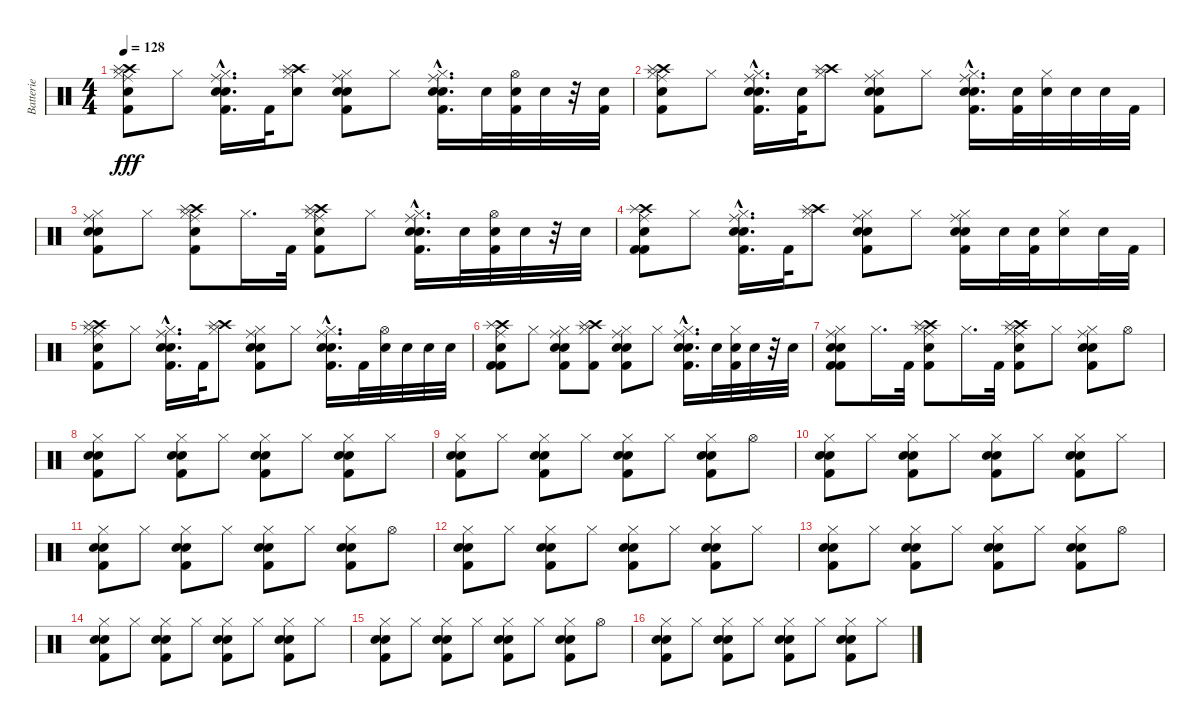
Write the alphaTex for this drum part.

\track ("Batterie" "Batterie") {instrument percussion}
\staff {score}
\articulation defaults
\ts (4 4)
\tempo 128
\clef neutral
\ks c
("Crash high (hit)" "Splash (hit)" "Ride (middle)" "Snare (hit) 2" "Kick (hit) 2" "Hi-Hat (closed)").8{dy fff} "Hi-Hat (closed)".8 ("Ride (middle)" "Snare (hit) 2"{hac} "Kick (hit) 2"{hac} "Hi-Hat (closed)" "Electric Snare (hit)").16{d} "Kick (hit) 2".32 ("Snare (hit) 2" "Hi-Hat (closed)" "Crash high (hit)" "Splash (hit)").8 ("Ride (middle)" "Kick (hit) 2" "Snare (hit) 2" "Hi-Hat (closed)" "Electric Snare (hit)").8 "Hi-Hat (closed)".8 ("Ride (middle)" "Kick (hit) 2"{hac} "Snare (hit) 2"{hac} "Hi-Hat (closed)" "Electric Snare (hit)").16{d} "Snare (hit) 2".32 ("Kick (hit) 2" "Snare (hit) 2" "Hi-Hat (open)").32 "Snare (hit) 2".32 r.32 ("Snare (hit) 2" "Kick (hit) 2").32 |
("Crash high (hit)" "Splash (hit)" "Ride (middle)" "Snare (hit) 2" "Kick (hit) 2" "Hi-Hat (closed)").8 "Hi-Hat (closed)".8 ("Ride (middle)" "Kick (hit) 2"{hac} "Snare (hit) 2"{hac} "Hi-Hat (closed)" "Electric Snare (hit)").16{d} ("Snare (hit) 2" "Kick (hit) 2").32 ("Hi-Hat (closed)" "Crash high (hit)" "Splash (hit)").8 ("Ride (middle)" "Snare (hit) 2" "Kick (hit) 2" "Hi-Hat (closed)" "Electric Snare (hit)").8 "Hi-Hat (closed)".8 ("Ride (middle)" "Snare (hit) 2"{hac} "Kick (hit) 2"{hac} "Hi-Hat (closed)" "Electric Snare (hit)").16{d} ("Snare (hit) 2" "Kick (hit) 2").32 ("Snare (hit) 2" "Hi-Hat (closed)").32 "Snare (hit) 2".32 "Snare (hit) 2".32 "Kick (hit) 2".32 |
("Ride (middle)" "Snare (hit) 2" "Kick (hit) 2" "Hi-Hat (closed)" "Electric Snare (hit)").8 "Hi-Hat (closed)".8 ("Crash high (hit)" "Splash (hit)" "Ride (middle)" "Snare (hit) 2" "Kick (hit) 2" "Hi-Hat (closed)").8 "Hi-Hat (closed)".16{d} "Kick (hit) 2".32 ("Crash high (hit)" "Splash (hit)" "Ride (middle)" "Kick (hit) 2" "Snare (hit) 2" "Hi-Hat (closed)").8 "Hi-Hat (closed)".8 ("Ride (middle)" "Kick (hit) 2"{hac} "Snare (hit) 2"{hac} "Hi-Hat (closed)" "Electric Snare (hit)").16{d} "Snare (hit) 2".32 ("Kick (hit) 2" "Hi-Hat (open)" "Snare (hit) 2").32 "Snare (hit) 2".32 r.32 "Snare (hit) 2".32 |
("Kick (hit) 2" "Crash high (hit)" "Splash (hit)" "Ride (middle)" "Snare (hit) 2" "Kick (hit) 2").8 "Hi-Hat (closed)".8 ("Ride (middle)" "Kick (hit) 2"{hac} "Snare (hit) 2" "Hi-Hat (closed)" "Electric Snare (hit)").16{d} "Kick (hit) 2".32 ("Crash high (hit)" "Splash (hit)" "Hi-Hat (closed)").8 ("Ride (middle)" "Snare (hit) 2" "Kick (hit) 2" "Hi-Hat (closed)" "Electric Snare (hit)").8 "Hi-Hat (closed)".8 ("Ride (middle)" "Snare (hit) 2" "Kick (hit) 2" "Hi-Hat (closed)" "Electric Snare (hit)").16 "Snare (hit) 2".32 ("Kick (hit) 2" "Snare (hit) 2").32 ("Hi-Hat (closed)" "Snare (hit) 2").16 "Snare (hit) 2".32 "Kick (hit) 2".32 |
("Crash high (hit)" "Splash (hit)" "Ride (middle)" "Snare (hit) 2" "Kick (hit) 2" "Hi-Hat (closed)").8 "Hi-Hat (closed)".8 ("Ride (middle)" "Snare (hit) 2" "Kick (hit) 2"{hac} "Hi-Hat (closed)" "Electric Snare (hit)").16{d} "Kick (hit) 2".32 ("Hi-Hat (closed)" "Crash high (hit)" "Splash (hit)").8 ("Ride (middle)" "Kick (hit) 2" "Snare (hit) 2" "Hi-Hat (closed)" "Electric Snare (hit)").8 "Hi-Hat (closed)".8 ("Ride (middle)" "Kick (hit) 2"{hac} "Snare (hit) 2"{hac} "Hi-Hat (closed)" "Electric Snare (hit)").16{d} "Kick (hit) 2".32 ("Snare (hit) 2" "Hi-Hat (open)").32 "Snare (hit) 2".32 "Snare (hit) 2".32 "Snare (hit) 2".32 |
("Kick (hit) 2" "Crash high (hit)" "Splash (hit)" "Ride (middle)" "Snare (hit) 2" "Kick (hit) 2").8 "Hi-Hat (closed)".8 ("Ride (middle)" "Kick (hit) 2" "Snare (hit) 2" "Hi-Hat (closed)" "Electric Snare (hit)").8 ("Crash high (hit)" "Splash (hit)" "Hi-Hat (closed)" "Kick (hit) 2").8 ("Ride (middle)" "Snare (hit) 2" "Kick (hit) 2" "Hi-Hat (closed)" "Electric Snare (hit)").8 "Hi-Hat (closed)".8 ("Ride (middle)" "Snare (hit) 2"{hac} "Kick (hit) 2"{hac} "Hi-Hat (closed)" "Electric Snare (hit)").16{d} "Snare (hit) 2".32 ("Kick (hit) 2" "Hi-Hat (closed)" "Snare (hit) 2").32 "Snare (hit) 2".32 r.32 "Snare (hit) 2".32 |
("Kick (hit) 2" "Ride (middle)" "Snare (hit) 2" "Kick (hit) 2" "Hi-Hat (closed)" "Electric Snare (hit)").8 "Hi-Hat (closed)".16{d} "Kick (hit) 2".32 ("Crash high (hit)" "Splash (hit)" "Ride (middle)" "Snare (hit) 2" "Kick (hit) 2" "Hi-Hat (closed)").8 "Hi-Hat (closed)".16{d} "Kick (hit) 2".32 ("Crash high (hit)" "Splash (hit)" "Ride (middle)" "Kick (hit) 2" "Snare (hit) 2" "Hi-Hat (closed)").8 "Hi-Hat (closed)".8 ("Ride (middle)" "Kick (hit) 2" "Snare (hit) 2" "Hi-Hat (closed)" "Electric Snare (hit)").8 "Hi-Hat (open)".8 |
("Snare (hit) 2" "Kick (hit) 2" "Hi-Hat (closed)" "Electric Snare (hit)").8 "Hi-Hat (closed)".8 ("Kick (hit) 2" "Snare (hit) 2" "Hi-Hat (closed)" "Electric Snare (hit)").8 "Hi-Hat (closed)".8 ("Snare (hit) 2" "Kick (hit) 2" "Hi-Hat (closed)" "Electric Snare (hit)").8 "Hi-Hat (closed)".8 ("Snare (hit) 2" "Kick (hit) 2" "Hi-Hat (closed)" "Electric Snare (hit)").8 "Hi-Hat (closed)".8 |
("Snare (hit) 2" "Kick (hit) 2" "Hi-Hat (closed)" "Electric Snare (hit)").8 "Hi-Hat (closed)".8 ("Snare (hit) 2" "Kick (hit) 2" "Hi-Hat (closed)" "Electric Snare (hit)").8 "Hi-Hat (closed)".8 ("Kick (hit) 2" "Snare (hit) 2" "Hi-Hat (closed)" "Electric Snare (hit)").8 "Hi-Hat (closed)".8 ("Kick (hit) 2" "Snare (hit) 2" "Hi-Hat (closed)" "Electric Snare (hit)").8 "Hi-Hat (open)".8 |
("Snare (hit) 2" "Kick (hit) 2" "Hi-Hat (closed)" "Electric Snare (hit)").8 "Hi-Hat (closed)".8 ("Kick (hit) 2" "Snare (hit) 2" "Hi-Hat (closed)" "Electric Snare (hit)").8 "Hi-Hat (closed)".8 ("Snare (hit) 2" "Kick (hit) 2" "Hi-Hat (closed)" "Electric Snare (hit)").8 "Hi-Hat (closed)".8 ("Snare (hit) 2" "Kick (hit) 2" "Hi-Hat (closed)" "Electric Snare (hit)").8 "Hi-Hat (closed)".8 |
("Snare (hit) 2" "Kick (hit) 2" "Hi-Hat (closed)" "Electric Snare (hit)").8 "Hi-Hat (closed)".8 ("Snare (hit) 2" "Kick (hit) 2" "Hi-Hat (closed)" "Electric Snare (hit)").8 "Hi-Hat (closed)".8 ("Kick (hit) 2" "Snare (hit) 2" "Hi-Hat (closed)" "Electric Snare (hit)").8 "Hi-Hat (closed)".8 ("Kick (hit) 2" "Snare (hit) 2" "Hi-Hat (closed)" "Electric Snare (hit)").8 "Hi-Hat (open)".8 |
("Snare (hit) 2" "Kick (hit) 2" "Hi-Hat (closed)" "Electric Snare (hit)").8 "Hi-Hat (closed)".8 ("Kick (hit) 2" "Snare (hit) 2" "Hi-Hat (closed)" "Electric Snare (hit)").8 "Hi-Hat (closed)".8 ("Snare (hit) 2" "Kick (hit) 2" "Hi-Hat (closed)" "Electric Snare (hit)").8 "Hi-Hat (closed)".8 ("Snare (hit) 2" "Kick (hit) 2" "Hi-Hat (closed)" "Electric Snare (hit)").8 "Hi-Hat (closed)".8 |
("Snare (hit) 2" "Kick (hit) 2" "Hi-Hat (closed)" "Electric Snare (hit)").8 "Hi-Hat (closed)".8 ("Snare (hit) 2" "Kick (hit) 2" "Hi-Hat (closed)" "Electric Snare (hit)").8 "Hi-Hat (closed)".8 ("Kick (hit) 2" "Snare (hit) 2" "Hi-Hat (closed)" "Electric Snare (hit)").8 "Hi-Hat (closed)".8 ("Kick (hit) 2" "Snare (hit) 2" "Hi-Hat (closed)" "Electric Snare (hit)").8 "Hi-Hat (open)".8 |
("Snare (hit) 2" "Kick (hit) 2" "Hi-Hat (closed)" "Electric Snare (hit)").8 "Hi-Hat (closed)".8 ("Kick (hit) 2" "Snare (hit) 2" "Hi-Hat (closed)" "Electric Snare (hit)").8 "Hi-Hat (closed)".8 ("Snare (hit) 2" "Kick (hit) 2" "Hi-Hat (closed)" "Electric Snare (hit)").8 "Hi-Hat (closed)".8 ("Snare (hit) 2" "Kick (hit) 2" "Hi-Hat (closed)" "Electric Snare (hit)").8 "Hi-Hat (closed)".8 |
("Snare (hit) 2" "Kick (hit) 2" "Hi-Hat (closed)" "Electric Snare (hit)").8 "Hi-Hat (closed)".8 ("Snare (hit) 2" "Kick (hit) 2" "Hi-Hat (closed)" "Electric Snare (hit)").8 "Hi-Hat (closed)".8 ("Kick (hit) 2" "Snare (hit) 2" "Hi-Hat (closed)" "Electric Snare (hit)").8 "Hi-Hat (closed)".8 ("Kick (hit) 2" "Snare (hit) 2" "Hi-Hat (closed)" "Electric Snare (hit)").8 "Hi-Hat (open)".8 |
("Snare (hit) 2" "Kick (hit) 2" "Hi-Hat (closed)" "Electric Snare (hit)").8 "Hi-Hat (closed)".8 ("Kick (hit) 2" "Snare (hit) 2" "Hi-Hat (closed)" "Electric Snare (hit)").8 "Hi-Hat (closed)".8 ("Snare (hit) 2" "Kick (hit) 2" "Hi-Hat (closed)" "Electric Snare (hit)").8 "Hi-Hat (closed)".8 ("Snare (hit) 2" "Kick (hit) 2" "Hi-Hat (closed)" "Electric Snare (hit)").8 "Hi-Hat (closed)".8
